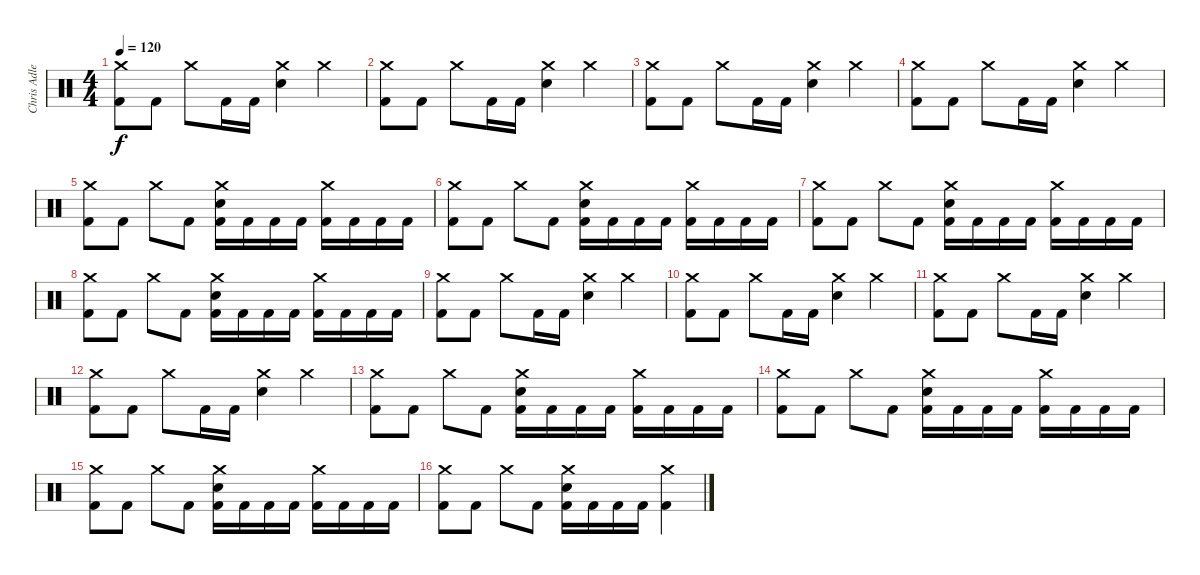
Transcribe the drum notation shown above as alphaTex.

\track ("Chris Adler" "Chris Adle") {instrument percussion}
\staff {score}
\articulation defaults
\ts (4 4)
\tempo 120
\clef neutral
\ks c
("Crash medium (hit)" "Kick (hit) 2").8{dy f} "Kick (hit) 2".8 "Crash medium (hit)".8 "Kick (hit) 2".16 "Kick (hit) 2".16 ("Crash medium (hit)" "Snare (hit) 2").4 "Crash medium (hit)".4 |
("Crash medium (hit)" "Kick (hit) 2").8 "Kick (hit) 2".8 "Crash medium (hit)".8 "Kick (hit) 2".16 "Kick (hit) 2".16 ("Crash medium (hit)" "Snare (hit) 2").4 "Crash medium (hit)".4 |
("Crash medium (hit)" "Kick (hit) 2").8 "Kick (hit) 2".8 "Crash medium (hit)".8 "Kick (hit) 2".16 "Kick (hit) 2".16 ("Crash medium (hit)" "Snare (hit) 2").4 "Crash medium (hit)".4 |
("Crash medium (hit)" "Kick (hit) 2").8 "Kick (hit) 2".8 "Crash medium (hit)".8 "Kick (hit) 2".16 "Kick (hit) 2".16 ("Crash medium (hit)" "Snare (hit) 2").4 "Crash medium (hit)".4 |
("Crash medium (hit)" "Kick (hit) 2").8 "Kick (hit) 2".8 "Crash medium (hit)".8 "Kick (hit) 2".8 ("Crash medium (hit)" "Snare (hit) 2" "Kick (hit) 2").16 "Kick (hit) 2".16 "Kick (hit) 2".16 "Kick (hit) 2".16 ("Crash medium (hit)" "Kick (hit) 2").16 "Kick (hit) 2".16 "Kick (hit) 2".16 "Kick (hit) 2".16 |
("Crash medium (hit)" "Kick (hit) 2").8 "Kick (hit) 2".8 "Crash medium (hit)".8 "Kick (hit) 2".8 ("Crash medium (hit)" "Snare (hit) 2" "Kick (hit) 2").16 "Kick (hit) 2".16 "Kick (hit) 2".16 "Kick (hit) 2".16 ("Crash medium (hit)" "Kick (hit) 2").16 "Kick (hit) 2".16 "Kick (hit) 2".16 "Kick (hit) 2".16 |
("Crash medium (hit)" "Kick (hit) 2").8 "Kick (hit) 2".8 "Crash medium (hit)".8 "Kick (hit) 2".8 ("Crash medium (hit)" "Snare (hit) 2" "Kick (hit) 2").16 "Kick (hit) 2".16 "Kick (hit) 2".16 "Kick (hit) 2".16 ("Crash medium (hit)" "Kick (hit) 2").16 "Kick (hit) 2".16 "Kick (hit) 2".16 "Kick (hit) 2".16 |
("Crash medium (hit)" "Kick (hit) 2").8 "Kick (hit) 2".8 "Crash medium (hit)".8 "Kick (hit) 2".8 ("Crash medium (hit)" "Snare (hit) 2" "Kick (hit) 2").16 "Kick (hit) 2".16 "Kick (hit) 2".16 "Kick (hit) 2".16 ("Crash medium (hit)" "Kick (hit) 2").16 "Kick (hit) 2".16 "Kick (hit) 2".16 "Kick (hit) 2".16 |
("Crash medium (hit)" "Kick (hit) 2").8 "Kick (hit) 2".8 "Crash medium (hit)".8 "Kick (hit) 2".16 "Kick (hit) 2".16 ("Crash medium (hit)" "Snare (hit) 2").4 "Crash medium (hit)".4 |
("Crash medium (hit)" "Kick (hit) 2").8 "Kick (hit) 2".8 "Crash medium (hit)".8 "Kick (hit) 2".16 "Kick (hit) 2".16 ("Crash medium (hit)" "Snare (hit) 2").4 "Crash medium (hit)".4 |
("Crash medium (hit)" "Kick (hit) 2").8 "Kick (hit) 2".8 "Crash medium (hit)".8 "Kick (hit) 2".16 "Kick (hit) 2".16 ("Crash medium (hit)" "Snare (hit) 2").4 "Crash medium (hit)".4 |
("Crash medium (hit)" "Kick (hit) 2").8 "Kick (hit) 2".8 "Crash medium (hit)".8 "Kick (hit) 2".16 "Kick (hit) 2".16 ("Crash medium (hit)" "Snare (hit) 2").4 "Crash medium (hit)".4 |
("Crash medium (hit)" "Kick (hit) 2").8 "Kick (hit) 2".8 "Crash medium (hit)".8 "Kick (hit) 2".8 ("Crash medium (hit)" "Snare (hit) 2" "Kick (hit) 2").16 "Kick (hit) 2".16 "Kick (hit) 2".16 "Kick (hit) 2".16 ("Crash medium (hit)" "Kick (hit) 2").16 "Kick (hit) 2".16 "Kick (hit) 2".16 "Kick (hit) 2".16 |
("Crash medium (hit)" "Kick (hit) 2").8 "Kick (hit) 2".8 "Crash medium (hit)".8 "Kick (hit) 2".8 ("Crash medium (hit)" "Snare (hit) 2" "Kick (hit) 2").16 "Kick (hit) 2".16 "Kick (hit) 2".16 "Kick (hit) 2".16 ("Crash medium (hit)" "Kick (hit) 2").16 "Kick (hit) 2".16 "Kick (hit) 2".16 "Kick (hit) 2".16 |
("Crash medium (hit)" "Kick (hit) 2").8 "Kick (hit) 2".8 "Crash medium (hit)".8 "Kick (hit) 2".8 ("Crash medium (hit)" "Snare (hit) 2" "Kick (hit) 2").16 "Kick (hit) 2".16 "Kick (hit) 2".16 "Kick (hit) 2".16 ("Crash medium (hit)" "Kick (hit) 2").16 "Kick (hit) 2".16 "Kick (hit) 2".16 "Kick (hit) 2".16 |
("Crash medium (hit)" "Kick (hit) 2").8 "Kick (hit) 2".8 "Crash medium (hit)".8 "Kick (hit) 2".8 ("Crash medium (hit)" "Snare (hit) 2" "Kick (hit) 2").16 "Kick (hit) 2".16 "Kick (hit) 2".16 "Kick (hit) 2".16 ("Crash medium (hit)" "Kick (hit) 2").4
